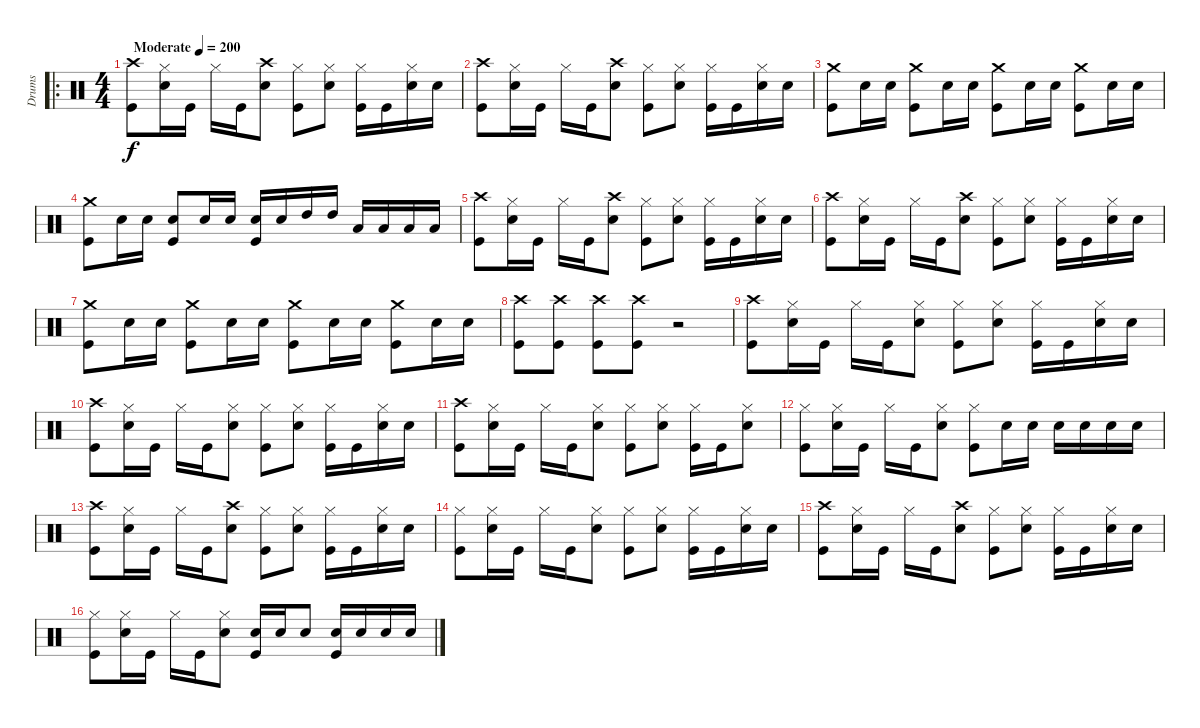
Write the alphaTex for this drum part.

\track ("Drums" "Drums") {instrument percussion}
\staff {score}
\articulation defaults
\ro
\ts (4 4)
\tempo (200 "Moderate")
\clef neutral
\ks c
("Crash high (hit)" "Kick (hit)").8{dy f} ("Hi-Hat (closed)" "Snare (hit) 2").16 "Kick (hit)".16 "Hi-Hat (closed)".16 "Kick (hit)".16 ("Crash high (hit)" "Snare (hit) 2").8 ("Hi-Hat (closed)" "Kick (hit)").8 ("Hi-Hat (closed)" "Snare (hit) 2").8 ("Hi-Hat (closed)" "Kick (hit)").16 "Kick (hit)".16 ("Hi-Hat (closed)" "Snare (hit) 2").16 "Snare (hit) 2".16 |
("Crash high (hit)" "Kick (hit)").8 ("Hi-Hat (closed)" "Snare (hit) 2").16 "Kick (hit)".16 "Hi-Hat (closed)".16 "Kick (hit)".16 ("Crash high (hit)" "Snare (hit) 2").8 ("Hi-Hat (closed)" "Kick (hit)").8 ("Hi-Hat (closed)" "Snare (hit) 2").8 ("Hi-Hat (closed)" "Kick (hit)").16 "Kick (hit)".16 ("Hi-Hat (closed)" "Snare (hit) 2").16 "Snare (hit) 2".16 |
("Crash medium (hit)" "Kick (hit)").8 "Snare (hit) 2".16 "Snare (hit) 2".16 ("Crash medium (hit)" "Kick (hit)").8 "Snare (hit) 2".16 "Snare (hit) 2".16 ("Crash medium (hit)" "Kick (hit)").8 "Snare (hit) 2".16 "Snare (hit) 2".16 ("Crash medium (hit)" "Kick (hit)").8 "Snare (hit) 2".16 "Snare (hit) 2".16 |
("Crash medium (hit)" "Kick (hit)").8 "Snare (hit) 2".16 "Snare (hit) 2".16 ("Snare (hit) 2" "Kick (hit)").8 "Snare (hit) 2".16 "Snare (hit) 2".16 ("Snare (hit) 2" "Kick (hit)").16 "Snare (hit) 2".16 "High Tom (hit)".16 "High Tom (hit)".16 "Low Tom (hit)".16 "Low Tom (hit)".16 "Low Floor Tom (hit)".16 "Low Floor Tom (hit)".16 |
("Crash high (hit)" "Kick (hit)").8 ("Hi-Hat (closed)" "Snare (hit) 2").16 "Kick (hit)".16 "Hi-Hat (closed)".16 "Kick (hit)".16 ("Crash high (hit)" "Snare (hit) 2").8 ("Hi-Hat (closed)" "Kick (hit)").8 ("Hi-Hat (closed)" "Snare (hit) 2").8 ("Hi-Hat (closed)" "Kick (hit)").16 "Kick (hit)".16 ("Hi-Hat (closed)" "Snare (hit) 2").16 "Snare (hit) 2".16 |
("Crash high (hit)" "Kick (hit)").8 ("Hi-Hat (closed)" "Snare (hit) 2").16 "Kick (hit)".16 "Hi-Hat (closed)".16 "Kick (hit)".16 ("Crash high (hit)" "Snare (hit) 2").8 ("Hi-Hat (closed)" "Kick (hit)").8 ("Hi-Hat (closed)" "Snare (hit) 2").8 ("Hi-Hat (closed)" "Kick (hit)").16 "Kick (hit)".16 ("Hi-Hat (closed)" "Snare (hit) 2").16 "Snare (hit) 2".16 |
("Crash medium (hit)" "Kick (hit)").8 "Snare (hit) 2".16 "Snare (hit) 2".16 ("Crash medium (hit)" "Kick (hit)").8 "Snare (hit) 2".16 "Snare (hit) 2".16 ("Crash medium (hit)" "Kick (hit)").8 "Snare (hit) 2".16 "Snare (hit) 2".16 ("Crash medium (hit)" "Kick (hit)").8 "Snare (hit) 2".16 "Snare (hit) 2".16 |
("Crash high (hit)" "Kick (hit)").8 ("Crash high (hit)" "Kick (hit)").8 ("Crash high (hit)" "Kick (hit)").8 ("Crash high (hit)" "Kick (hit)").8 r.2{volume 3} |
("Crash high (hit)" "Kick (hit)").8{volume 13} ("Hi-Hat (closed)" "Snare (hit) 2").16 "Kick (hit)".16 "Hi-Hat (closed)".16 "Kick (hit)".16 ("Hi-Hat (closed)" "Snare (hit) 2").8 ("Hi-Hat (closed)" "Kick (hit)").8 ("Hi-Hat (closed)" "Snare (hit) 2").8 ("Hi-Hat (closed)" "Kick (hit)").16 "Kick (hit)".16 ("Hi-Hat (closed)" "Snare (hit) 2").16 "Snare (hit) 2".16 |
("Crash high (hit)" "Kick (hit)").8 ("Hi-Hat (closed)" "Snare (hit) 2").16 "Kick (hit)".16 "Hi-Hat (closed)".16 "Kick (hit)".16 ("Hi-Hat (closed)" "Snare (hit) 2").8 ("Hi-Hat (closed)" "Kick (hit)").8 ("Hi-Hat (closed)" "Snare (hit) 2").8 ("Hi-Hat (closed)" "Kick (hit)").16 "Kick (hit)".16 ("Hi-Hat (closed)" "Snare (hit) 2").16 "Snare (hit) 2".16 |
("Crash high (hit)" "Kick (hit)").8 ("Hi-Hat (closed)" "Snare (hit) 2").16 "Kick (hit)".16 "Hi-Hat (closed)".16 "Kick (hit)".16 ("Hi-Hat (closed)" "Snare (hit) 2").8 ("Hi-Hat (closed)" "Kick (hit)").8 ("Hi-Hat (closed)" "Snare (hit) 2").8 ("Hi-Hat (closed)" "Kick (hit)").16 "Kick (hit)".16 ("Hi-Hat (closed)" "Snare (hit) 2").8 |
("Hi-Hat (closed)" "Kick (hit)").8 ("Hi-Hat (closed)" "Snare (hit) 2").16 "Kick (hit)".16 "Hi-Hat (closed)".16 "Kick (hit)".16 ("Hi-Hat (closed)" "Snare (hit) 2").8 ("Hi-Hat (closed)" "Kick (hit)").8 "Snare (hit) 2".16 "Snare (hit) 2".16 "Snare (hit) 2".16 "Snare (hit) 2".16 "Snare (hit) 2".16 "Snare (hit) 2".16 |
("Crash high (hit)" "Kick (hit)").8 ("Hi-Hat (closed)" "Snare (hit) 2").16 "Kick (hit)".16 "Hi-Hat (closed)".16 "Kick (hit)".16 ("Crash high (hit)" "Snare (hit) 2").8 ("Hi-Hat (closed)" "Kick (hit)").8 ("Hi-Hat (closed)" "Snare (hit) 2").8 ("Hi-Hat (closed)" "Kick (hit)").16 "Kick (hit)".16 ("Hi-Hat (closed)" "Snare (hit) 2").16 "Snare (hit) 2".16 |
("Hi-Hat (closed)" "Kick (hit)").8 ("Hi-Hat (closed)" "Snare (hit) 2").16 "Kick (hit)".16 "Hi-Hat (closed)".16 "Kick (hit)".16 ("Hi-Hat (closed)" "Snare (hit) 2").8 ("Hi-Hat (closed)" "Kick (hit)").8 ("Hi-Hat (closed)" "Snare (hit) 2").8 ("Hi-Hat (closed)" "Kick (hit)").16 "Kick (hit)".16 ("Hi-Hat (closed)" "Snare (hit) 2").16 "Snare (hit) 2".16 |
("Crash high (hit)" "Kick (hit)").8 ("Hi-Hat (closed)" "Snare (hit) 2").16 "Kick (hit)".16 "Hi-Hat (closed)".16 "Kick (hit)".16 ("Crash high (hit)" "Snare (hit) 2").8 ("Hi-Hat (closed)" "Kick (hit)").8 ("Hi-Hat (closed)" "Snare (hit) 2").8 ("Hi-Hat (closed)" "Kick (hit)").16 "Kick (hit)".16 ("Hi-Hat (closed)" "Snare (hit) 2").16 "Snare (hit) 2".16 |
("Hi-Hat (closed)" "Kick (hit)").8 ("Hi-Hat (closed)" "Snare (hit) 2").16 "Kick (hit)".16 "Hi-Hat (closed)".16 "Kick (hit)".16 ("Hi-Hat (closed)" "Snare (hit) 2").8 ("Snare (hit) 2" "Kick (hit)").16 "Snare (hit) 2".16 "Snare (hit) 2".8 ("Snare (hit) 2" "Kick (hit)").16 "Snare (hit) 2".16 "Snare (hit) 2".16 "Snare (hit) 2".16
